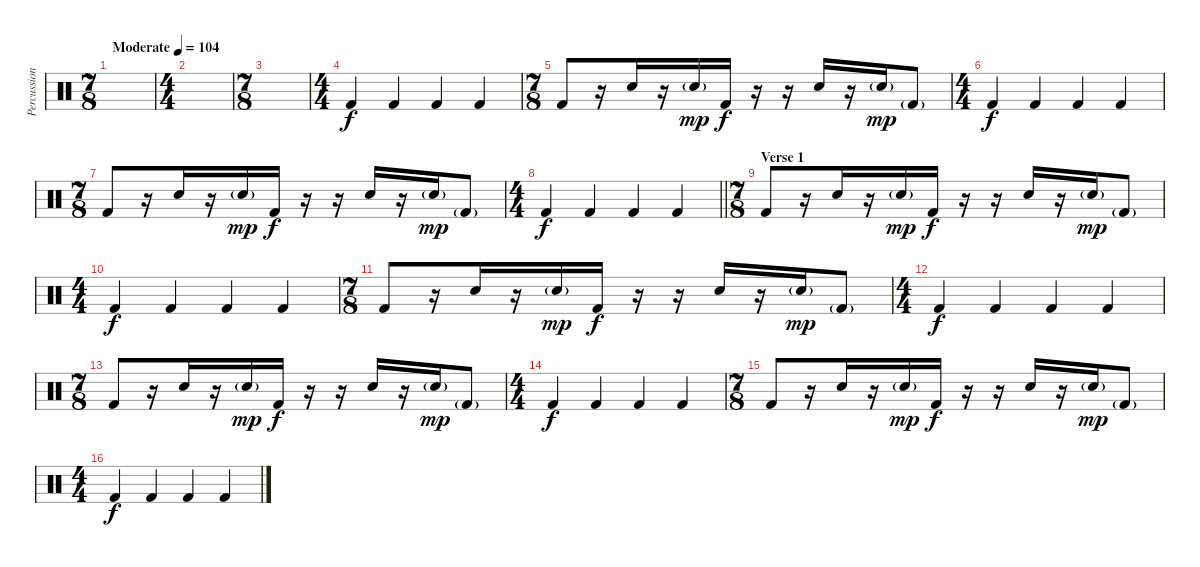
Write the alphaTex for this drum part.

\track ("Percussion" "Percussion") {instrument percussion}
\staff {score}
\articulation defaults
\ts (7 8)
\tempo (104 "Moderate")
\clef neutral
\ks c
|
\ts (4 4)
|
\ts (7 8)
|
\ts (4 4)
"Kick (hit) 2".4 "Kick (hit) 2".4 "Kick (hit) 2".4 "Kick (hit) 2".4 |
\ts (7 8)
"Kick (hit) 2".8 r.16 "Snare (hit) 2".16 r.16 "Snare (hit) 2"{g}.16{dy mp} "Kick (hit) 2".16{dy f} r.16 r.16 "Snare (hit) 2".16 r.16 "Snare (hit) 2"{g}.16{dy mp} "Kick (hit) 2"{g}.8 |
\ts (4 4)
"Kick (hit) 2".4{dy f} "Kick (hit) 2".4 "Kick (hit) 2".4 "Kick (hit) 2".4 |
\ts (7 8)
"Kick (hit) 2".8 r.16 "Snare (hit) 2".16 r.16 "Snare (hit) 2"{g}.16{dy mp} "Kick (hit) 2".16{dy f} r.16 r.16 "Snare (hit) 2".16 r.16 "Snare (hit) 2"{g}.16{dy mp} "Kick (hit) 2"{g}.8 |
\ts (4 4)
\barLineRight lightlight "Kick (hit) 2".4{dy f} "Kick (hit) 2".4 "Kick (hit) 2".4 "Kick (hit) 2".4
|
\ts (7 8)
\section ("" "Verse 1")
"Kick (hit) 2".8 r.16 "Snare (hit) 2".16 r.16 "Snare (hit) 2"{g}.16{dy mp} "Kick (hit) 2".16{dy f} r.16 r.16 "Snare (hit) 2".16 r.16 "Snare (hit) 2"{g}.16{dy mp} "Kick (hit) 2"{g}.8 |
\ts (4 4)
"Kick (hit) 2".4{dy f} "Kick (hit) 2".4 "Kick (hit) 2".4 "Kick (hit) 2".4 |
\ts (7 8)
"Kick (hit) 2".8 r.16 "Snare (hit) 2".16 r.16 "Snare (hit) 2"{g}.16{dy mp} "Kick (hit) 2".16{dy f} r.16 r.16 "Snare (hit) 2".16 r.16 "Snare (hit) 2"{g}.16{dy mp} "Kick (hit) 2"{g}.8 |
\ts (4 4)
"Kick (hit) 2".4{dy f} "Kick (hit) 2".4 "Kick (hit) 2".4 "Kick (hit) 2".4 |
\ts (7 8)
"Kick (hit) 2".8 r.16 "Snare (hit) 2".16 r.16 "Snare (hit) 2"{g}.16{dy mp} "Kick (hit) 2".16{dy f} r.16 r.16 "Snare (hit) 2".16 r.16 "Snare (hit) 2"{g}.16{dy mp} "Kick (hit) 2"{g}.8 |
\ts (4 4)
"Kick (hit) 2".4{dy f} "Kick (hit) 2".4 "Kick (hit) 2".4 "Kick (hit) 2".4 |
\ts (7 8)
"Kick (hit) 2".8 r.16 "Snare (hit) 2".16 r.16 "Snare (hit) 2"{g}.16{dy mp} "Kick (hit) 2".16{dy f} r.16 r.16 "Snare (hit) 2".16 r.16 "Snare (hit) 2"{g}.16{dy mp} "Kick (hit) 2"{g}.8 |
\ts (4 4)
"Kick (hit) 2".4{dy f} "Kick (hit) 2".4 "Kick (hit) 2".4 "Kick (hit) 2".4
